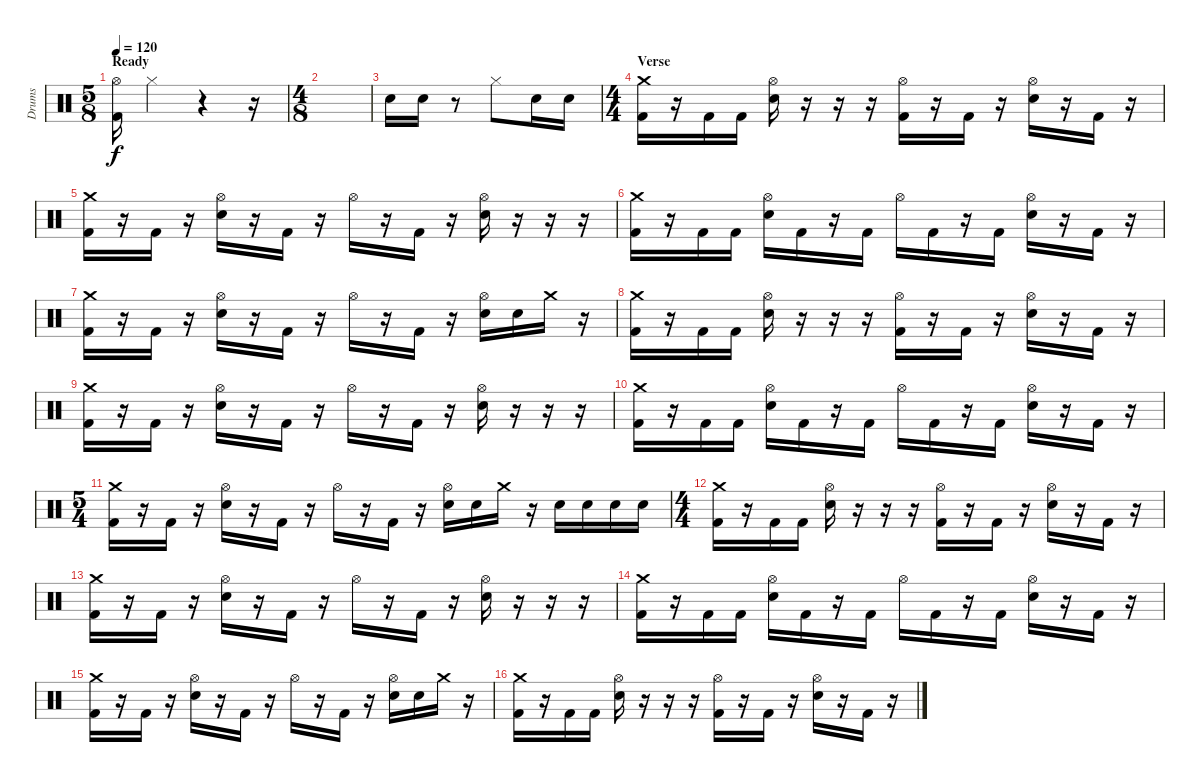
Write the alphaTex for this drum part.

\track ("Drums" "Drums") {instrument percussion}
\staff {score}
\articulation defaults
\ts (5 8)
\section ("" "Ready")
\tempo 120
\clef neutral
\ks c
("Hi-Hat (open)" "Kick (hit) 2").16{dy f} "Hi-Hat (closed)".4 r.4 r.16 |
\ts (4 8)
|
"Electric Snare (hit)".16 "Electric Snare (hit)".16 r.8 "Hi-Hat (closed)".8 "Electric Snare (hit)".16 "Electric Snare (hit)".16 |
\ts (4 4)
\section ("" "Verse")
("Crash medium (hit)" "Kick (hit) 2").16 r.16 "Kick (hit) 2".16 "Kick (hit) 2".16 ("Hi-Hat (open)" "Electric Snare (hit)").16 r.16 r.16 r.16 ("Hi-Hat (open)" "Kick (hit) 2").16 r.16 "Kick (hit) 2".16 r.16 ("Hi-Hat (open)" "Electric Snare (hit)").16 r.16 "Kick (hit) 2".16 r.16 |
("Crash medium (hit)" "Kick (hit) 2").16 r.16 "Kick (hit) 2".16 r.16 ("Hi-Hat (open)" "Electric Snare (hit)").16 r.16 "Kick (hit) 2".16 r.16 "Hi-Hat (open)".16 r.16 "Kick (hit) 2".16 r.16 ("Hi-Hat (open)" "Electric Snare (hit)").16 r.16 r.16 r.16 |
("Crash medium (hit)" "Kick (hit) 2").16 r.16 "Kick (hit) 2".16 "Kick (hit) 2".16 ("Hi-Hat (open)" "Electric Snare (hit)").16 "Kick (hit) 2".16 r.16 "Kick (hit) 2".16 "Hi-Hat (open)".16 "Kick (hit) 2".16 r.16 "Kick (hit) 2".16 ("Hi-Hat (open)" "Electric Snare (hit)").16 r.16 "Kick (hit) 2".16 r.16 |
("Crash medium (hit)" "Kick (hit) 2").16 r.16 "Kick (hit) 2".16 r.16 ("Hi-Hat (open)" "Electric Snare (hit)").16 r.16 "Kick (hit) 2".16 r.16 "Hi-Hat (open)".16 r.16 "Kick (hit) 2".16 r.16 ("Hi-Hat (open)" "Electric Snare (hit)").16 "Electric Snare (hit)".16 "Crash medium (hit)".16 r.16 |
("Crash medium (hit)" "Kick (hit) 2").16 r.16 "Kick (hit) 2".16 "Kick (hit) 2".16 ("Hi-Hat (open)" "Electric Snare (hit)").16 r.16 r.16 r.16 ("Hi-Hat (open)" "Kick (hit) 2").16 r.16 "Kick (hit) 2".16 r.16 ("Hi-Hat (open)" "Electric Snare (hit)").16 r.16 "Kick (hit) 2".16 r.16 |
("Crash medium (hit)" "Kick (hit) 2").16 r.16 "Kick (hit) 2".16 r.16 ("Hi-Hat (open)" "Electric Snare (hit)").16 r.16 "Kick (hit) 2".16 r.16 "Hi-Hat (open)".16 r.16 "Kick (hit) 2".16 r.16 ("Hi-Hat (open)" "Electric Snare (hit)").16 r.16 r.16 r.16 |
("Crash medium (hit)" "Kick (hit) 2").16 r.16 "Kick (hit) 2".16 "Kick (hit) 2".16 ("Hi-Hat (open)" "Electric Snare (hit)").16 "Kick (hit) 2".16 r.16 "Kick (hit) 2".16 "Hi-Hat (open)".16 "Kick (hit) 2".16 r.16 "Kick (hit) 2".16 ("Hi-Hat (open)" "Electric Snare (hit)").16 r.16 "Kick (hit) 2".16 r.16 |
\ts (5 4)
("Crash medium (hit)" "Kick (hit) 2").16 r.16 "Kick (hit) 2".16 r.16 ("Hi-Hat (open)" "Electric Snare (hit)").16 r.16 "Kick (hit) 2".16 r.16 "Hi-Hat (open)".16 r.16 "Kick (hit) 2".16 r.16 ("Hi-Hat (open)" "Electric Snare (hit)").16 "Electric Snare (hit)".16 "Crash medium (hit)".16 r.16 "Electric Snare (hit)".16 "Electric Snare (hit)".16 "Electric Snare (hit)".16 "Electric Snare (hit)".16 |
\ts (4 4)
("Crash medium (hit)" "Kick (hit) 2").16 r.16 "Kick (hit) 2".16 "Kick (hit) 2".16 ("Hi-Hat (open)" "Electric Snare (hit)").16 r.16 r.16 r.16 ("Hi-Hat (open)" "Kick (hit) 2").16 r.16 "Kick (hit) 2".16 r.16 ("Hi-Hat (open)" "Electric Snare (hit)").16 r.16 "Kick (hit) 2".16 r.16 |
("Crash medium (hit)" "Kick (hit) 2").16 r.16 "Kick (hit) 2".16 r.16 ("Hi-Hat (open)" "Electric Snare (hit)").16 r.16 "Kick (hit) 2".16 r.16 "Hi-Hat (open)".16 r.16 "Kick (hit) 2".16 r.16 ("Hi-Hat (open)" "Electric Snare (hit)").16 r.16 r.16 r.16 |
("Crash medium (hit)" "Kick (hit) 2").16 r.16 "Kick (hit) 2".16 "Kick (hit) 2".16 ("Hi-Hat (open)" "Electric Snare (hit)").16 "Kick (hit) 2".16 r.16 "Kick (hit) 2".16 "Hi-Hat (open)".16 "Kick (hit) 2".16 r.16 "Kick (hit) 2".16 ("Hi-Hat (open)" "Electric Snare (hit)").16 r.16 "Kick (hit) 2".16 r.16 |
("Crash medium (hit)" "Kick (hit) 2").16 r.16 "Kick (hit) 2".16 r.16 ("Hi-Hat (open)" "Electric Snare (hit)").16 r.16 "Kick (hit) 2".16 r.16 "Hi-Hat (open)".16 r.16 "Kick (hit) 2".16 r.16 ("Hi-Hat (open)" "Electric Snare (hit)").16 "Electric Snare (hit)".16 "Crash medium (hit)".16 r.16 |
("Crash medium (hit)" "Kick (hit) 2").16 r.16 "Kick (hit) 2".16 "Kick (hit) 2".16 ("Hi-Hat (open)" "Electric Snare (hit)").16 r.16 r.16 r.16 ("Hi-Hat (open)" "Kick (hit) 2").16 r.16 "Kick (hit) 2".16 r.16 ("Hi-Hat (open)" "Electric Snare (hit)").16 r.16 "Kick (hit) 2".16 r.16
